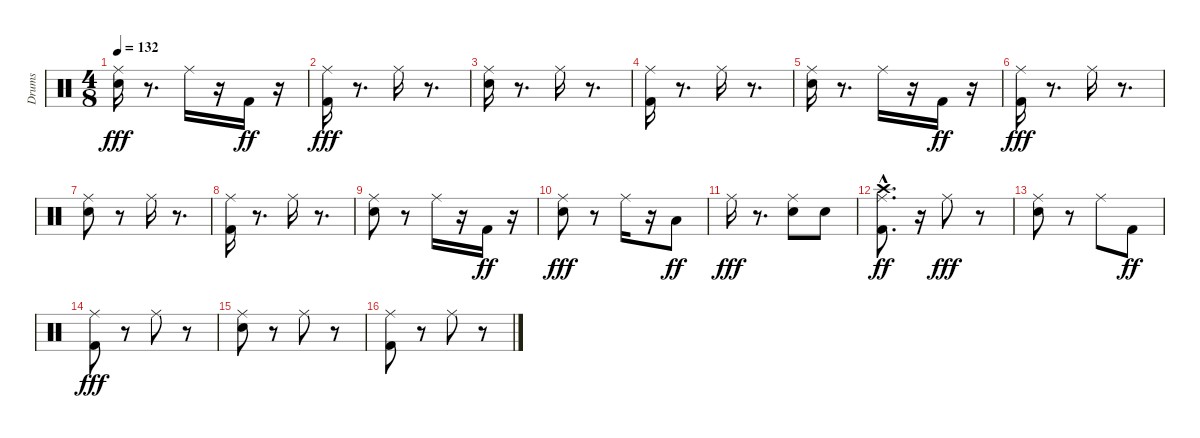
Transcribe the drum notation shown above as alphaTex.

\track ("Drums" "Drums") {instrument percussion}
\staff {score}
\articulation defaults
\ts (4 8)
\tempo 132
\clef neutral
\ks c
("Snare (hit) 2" "Ride (middle)").16{dy fff} r.8{d} "Ride (middle)".16 r.16 "Kick (hit) 2".16{dy ff} r.16 |
("Kick (hit) 2" "Ride (middle)").16{dy fff} r.8{d} "Ride (middle)".16 r.8{d} |
("Snare (hit) 2" "Ride (middle)").16 r.8{d} "Ride (middle)".16 r.8{d} |
("Kick (hit) 2" "Ride (middle)").16 r.8{d} "Ride (middle)".16 r.8{d} |
("Snare (hit) 2" "Ride (middle)").16 r.8{d} "Ride (middle)".16 r.16 "Kick (hit) 2".16{dy ff} r.16 |
("Kick (hit) 2" "Ride (middle)").16{dy fff} r.8{d} "Ride (middle)".16 r.8{d} |
("Snare (hit) 2" "Ride (middle)").8 r.8 "Ride (middle)".16 r.8{d} |
("Kick (hit) 2" "Ride (middle)").16 r.8{d} "Ride (middle)".16 r.8{d} |
("Snare (hit) 2" "Ride (middle)").8 r.8 "Ride (middle)".16 r.16 "Kick (hit) 2".16{dy ff} r.16 |
("Snare (hit) 2" "Ride (middle)").8{dy fff} r.8 "Ride (middle)".16 r.16 "Low Floor Tom (hit)".8{dy ff} |
"Ride (middle)".16{dy fff} r.8{d} ("Snare (hit) 2" "Ride (middle)").8 "Snare (hit) 2".8 |
("Kick (hit) 2" "Ride (middle)" "Crash high (hit)"{hac}).8{d dy ff} r.16 "Ride (middle)".8{dy fff} r.8 |
("Snare (hit) 2" "Ride (middle)").8 r.8 "Ride (middle)".8 "Kick (hit) 2".8{dy ff} |
("Kick (hit) 2" "Ride (middle)").8{dy fff} r.8 "Ride (middle)".8 r.8 |
("Snare (hit) 2" "Ride (middle)").8 r.8 "Ride (middle)".8 r.8 |
("Kick (hit) 2" "Ride (middle)").8 r.8 "Ride (middle)".8 r.8
